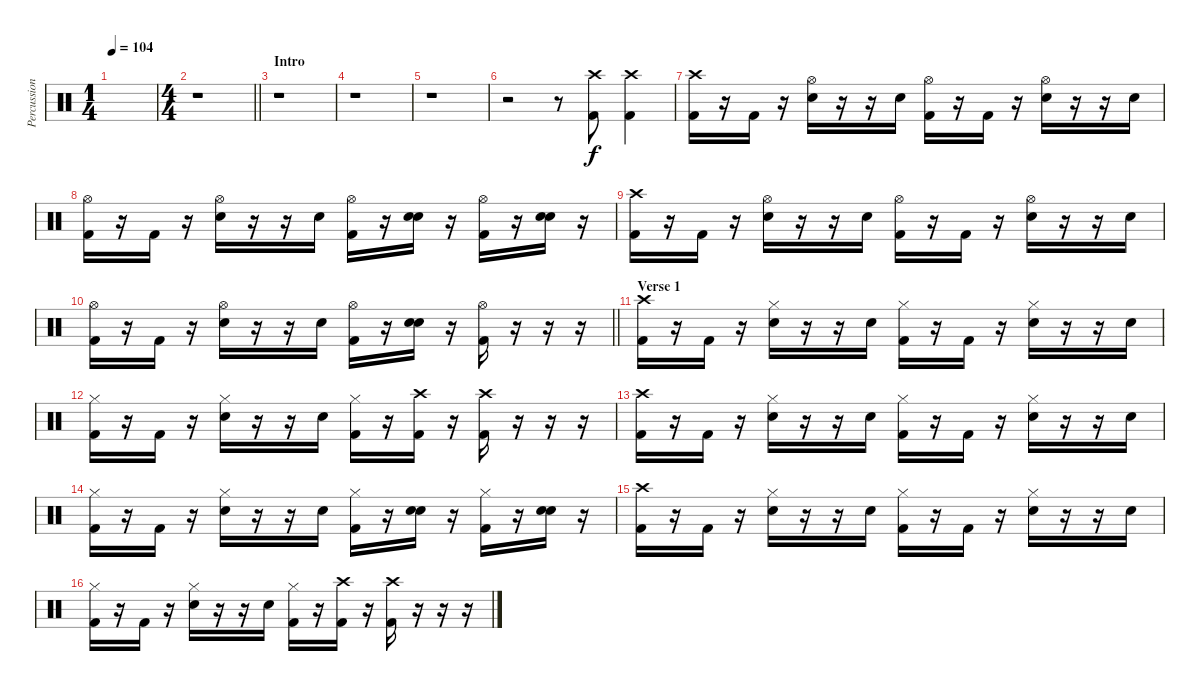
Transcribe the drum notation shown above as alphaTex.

\track ("Percussion" "Percussion") {instrument percussion}
\staff {score}
\articulation defaults
\ts (1 4)
\tempo 104
\clef neutral
\ks c
|
\ts (4 4)
\barLineRight lightlight
r.1 |
\section ("" "Intro")
r.1 |
r.1 |
r.1 |
r.2 r.8 ("Crash high (hit)" "Kick (hit) 2").8 ("Crash high (hit)" "Kick (hit) 2").4 |
("Crash high (hit)" "Kick (hit) 2").16 r.16 "Kick (hit) 2".16 r.16 ("Electric Snare (hit)" "Hi-Hat (open)").16 r.16 r.16 "Electric Snare (hit)".16 ("Hi-Hat (open)" "Kick (hit) 2").16 r.16 "Kick (hit) 2".16 r.16 ("Electric Snare (hit)" "Hi-Hat (open)").16 r.16 r.16 "Electric Snare (hit)".16 |
("Hi-Hat (open)" "Kick (hit) 2").16 r.16 "Kick (hit) 2".16 r.16 ("Electric Snare (hit)" "Hi-Hat (open)").16 r.16 r.16 "Electric Snare (hit)".16 ("Hi-Hat (open)" "Kick (hit) 2").16 r.16 ("Electric Snare (hit)" "Electric Snare (hit)").16 r.16 ("Hi-Hat (open)" "Kick (hit) 2").16 r.16 ("Electric Snare (hit)" "Electric Snare (hit)").16 r.16 |
("Crash high (hit)" "Kick (hit) 2").16 r.16 "Kick (hit) 2".16 r.16 ("Electric Snare (hit)" "Hi-Hat (open)").16 r.16 r.16 "Electric Snare (hit)".16 ("Hi-Hat (open)" "Kick (hit) 2").16 r.16 "Kick (hit) 2".16 r.16 ("Electric Snare (hit)" "Hi-Hat (open)").16 r.16 r.16 "Electric Snare (hit)".16 |
\barLineRight lightlight
("Hi-Hat (open)" "Kick (hit) 2").16 r.16 "Kick (hit) 2".16 r.16 ("Electric Snare (hit)" "Hi-Hat (open)").16 r.16 r.16 "Electric Snare (hit)".16 ("Hi-Hat (open)" "Kick (hit) 2").16 r.16 ("Electric Snare (hit)" "Electric Snare (hit)").16 r.16 ("Hi-Hat (open)" "Kick (hit) 2").16 r.16 r.16 r.16 |
\section ("" "Verse 1")
("Crash high (hit)" "Kick (hit) 2").16 r.16 "Kick (hit) 2".16 r.16 ("Electric Snare (hit)" "Hi-Hat (closed)").16 r.16 r.16 "Electric Snare (hit)".16 ("Hi-Hat (closed)" "Kick (hit) 2").16 r.16 "Kick (hit) 2".16 r.16 ("Electric Snare (hit)" "Hi-Hat (closed)").16 r.16 r.16 "Electric Snare (hit)".16 |
("Hi-Hat (closed)" "Kick (hit) 2").16 r.16 "Kick (hit) 2".16 r.16 ("Electric Snare (hit)" "Hi-Hat (closed)").16 r.16 r.16 "Electric Snare (hit)".16 ("Hi-Hat (closed)" "Kick (hit) 2").16 r.16 ("Crash high (hit)" "Kick (hit) 2").16 r.16 ("Crash high (hit)" "Kick (hit) 2").16 r.16 r.16 r.16 |
("Crash high (hit)" "Kick (hit) 2").16 r.16 "Kick (hit) 2".16 r.16 ("Electric Snare (hit)" "Hi-Hat (closed)").16 r.16 r.16 "Electric Snare (hit)".16 ("Hi-Hat (closed)" "Kick (hit) 2").16 r.16 "Kick (hit) 2".16 r.16 ("Electric Snare (hit)" "Hi-Hat (closed)").16 r.16 r.16 "Electric Snare (hit)".16 |
("Hi-Hat (closed)" "Kick (hit) 2").16 r.16 "Kick (hit) 2".16 r.16 ("Electric Snare (hit)" "Hi-Hat (closed)").16 r.16 r.16 "Electric Snare (hit)".16 ("Hi-Hat (closed)" "Kick (hit) 2").16 r.16 ("Electric Snare (hit)" "Electric Snare (hit)").16 r.16 ("Hi-Hat (closed)" "Kick (hit) 2").16 r.16 ("Electric Snare (hit)" "Electric Snare (hit)").16 r.16 |
("Crash high (hit)" "Kick (hit) 2").16 r.16 "Kick (hit) 2".16 r.16 ("Electric Snare (hit)" "Hi-Hat (closed)").16 r.16 r.16 "Electric Snare (hit)".16 ("Hi-Hat (closed)" "Kick (hit) 2").16 r.16 "Kick (hit) 2".16 r.16 ("Electric Snare (hit)" "Hi-Hat (closed)").16 r.16 r.16 "Electric Snare (hit)".16 |
("Hi-Hat (closed)" "Kick (hit) 2").16 r.16 "Kick (hit) 2".16 r.16 ("Electric Snare (hit)" "Hi-Hat (closed)").16 r.16 r.16 "Electric Snare (hit)".16 ("Hi-Hat (closed)" "Kick (hit) 2").16 r.16 ("Crash high (hit)" "Kick (hit) 2").16 r.16 ("Crash high (hit)" "Kick (hit) 2").16 r.16 r.16 r.16
